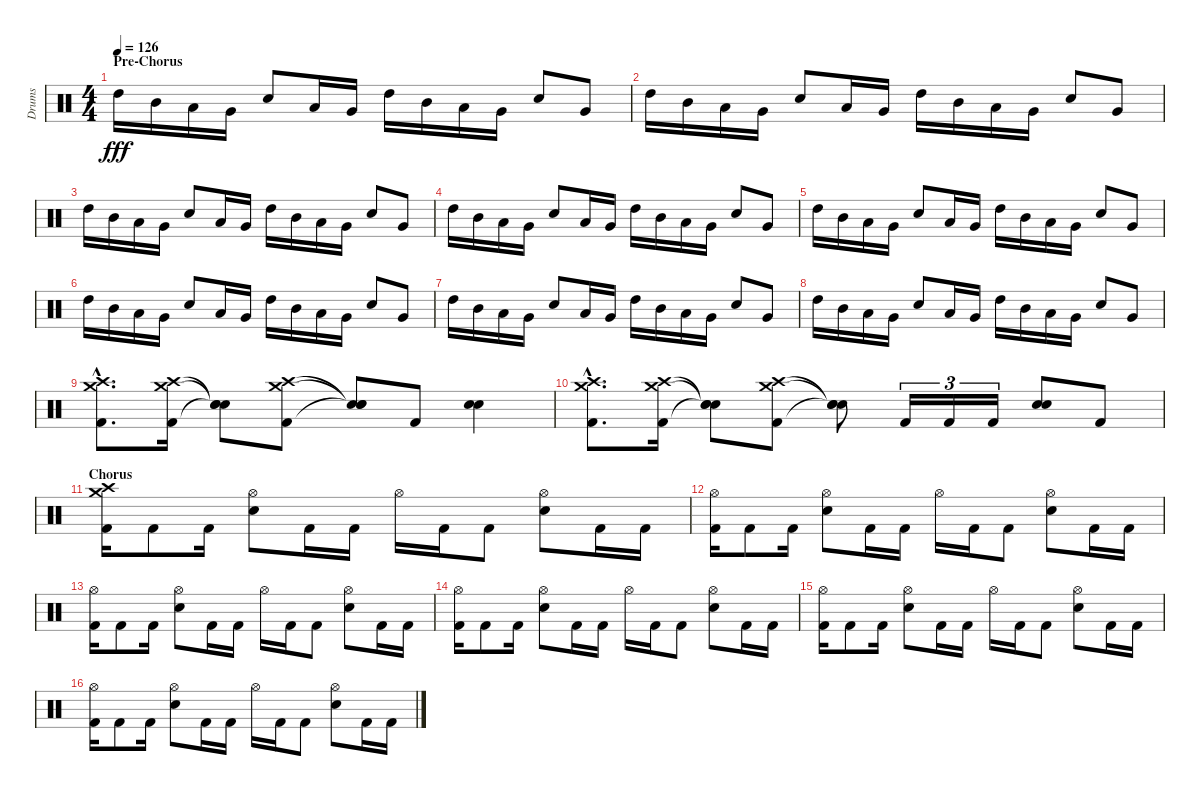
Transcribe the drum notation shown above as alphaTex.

\track ("Drums" "Drums") {instrument percussion}
\staff {score}
\articulation defaults
\ts (4 4)
\section ("" "Pre-Chorus")
\tempo 126
\clef neutral
\ks c "High Tom (hit)".16{dy fff} "Mid Tom (hit)".16 "Low Tom (hit)".16 "Very Low Tom (hit)".16 "Electric Snare (hit)".8 "Low Tom (hit)".16 "Very Low Tom (hit)".16 "High Tom (hit)".16 "Mid Tom (hit)".16 "Low Tom (hit)".16 "Very Low Tom (hit)".16 "Electric Snare (hit)".8 "Very Low Tom (hit)".8
|
"High Tom (hit)".16 "Mid Tom (hit)".16 "Low Tom (hit)".16 "Very Low Tom (hit)".16 "Electric Snare (hit)".8 "Low Tom (hit)".16 "Very Low Tom (hit)".16 "High Tom (hit)".16 "Mid Tom (hit)".16 "Low Tom (hit)".16 "Very Low Tom (hit)".16 "Electric Snare (hit)".8 "Very Low Tom (hit)".8 |
"High Tom (hit)".16 "Mid Tom (hit)".16 "Low Tom (hit)".16 "Very Low Tom (hit)".16 "Electric Snare (hit)".8 "Low Tom (hit)".16 "Very Low Tom (hit)".16 "High Tom (hit)".16 "Mid Tom (hit)".16 "Low Tom (hit)".16 "Very Low Tom (hit)".16 "Electric Snare (hit)".8 "Very Low Tom (hit)".8 |
"High Tom (hit)".16 "Mid Tom (hit)".16 "Low Tom (hit)".16 "Very Low Tom (hit)".16 "Electric Snare (hit)".8 "Low Tom (hit)".16 "Very Low Tom (hit)".16 "High Tom (hit)".16 "Mid Tom (hit)".16 "Low Tom (hit)".16 "Very Low Tom (hit)".16 "Electric Snare (hit)".8 "Very Low Tom (hit)".8 |
"High Tom (hit)".16 "Mid Tom (hit)".16 "Low Tom (hit)".16 "Very Low Tom (hit)".16 "Electric Snare (hit)".8 "Low Tom (hit)".16 "Very Low Tom (hit)".16 "High Tom (hit)".16 "Mid Tom (hit)".16 "Low Tom (hit)".16 "Very Low Tom (hit)".16 "Electric Snare (hit)".8 "Very Low Tom (hit)".8 |
"High Tom (hit)".16 "Mid Tom (hit)".16 "Low Tom (hit)".16 "Very Low Tom (hit)".16 "Electric Snare (hit)".8 "Low Tom (hit)".16 "Very Low Tom (hit)".16 "High Tom (hit)".16 "Mid Tom (hit)".16 "Low Tom (hit)".16 "Very Low Tom (hit)".16 "Electric Snare (hit)".8 "Very Low Tom (hit)".8 |
"High Tom (hit)".16 "Mid Tom (hit)".16 "Low Tom (hit)".16 "Very Low Tom (hit)".16 "Electric Snare (hit)".8 "Low Tom (hit)".16 "Very Low Tom (hit)".16 "High Tom (hit)".16 "Mid Tom (hit)".16 "Low Tom (hit)".16 "Very Low Tom (hit)".16 "Electric Snare (hit)".8 "Very Low Tom (hit)".8 |
"High Tom (hit)".16 "Mid Tom (hit)".16 "Low Tom (hit)".16 "Very Low Tom (hit)".16 "Electric Snare (hit)".8 "Low Tom (hit)".16 "Very Low Tom (hit)".16 "High Tom (hit)".16 "Mid Tom (hit)".16 "Low Tom (hit)".16 "Very Low Tom (hit)".16 "Electric Snare (hit)".8 "Very Low Tom (hit)".8 |
("Crash high (hit)"{hac} "Crash medium (hit)"{hac} "Kick (hit) 2"{hac}).8{d} ("Crash high (hit)" "Crash medium (hit)" "Kick (hit) 2").16 ("Snare (hit)"{t} "Snare (hit)"{t} "Snare (hit)"{t}).8 ("Crash high (hit)" "Crash medium (hit)" "Kick (hit) 2").8 ("Snare (hit)"{t} "Snare (hit)"{t} "Snare (hit)"{t}).8 "Kick (hit) 2".8 ("Electric Snare (hit)" "Electric Snare (hit)").4 |
("Crash high (hit)"{hac} "Crash medium (hit)"{hac} "Kick (hit) 2"{hac}).8{d} ("Crash high (hit)" "Crash medium (hit)" "Kick (hit) 2").16 ("Snare (hit)"{t} "Snare (hit)"{t} "Snare (hit)"{t}).8 ("Crash high (hit)" "Crash medium (hit)" "Kick (hit) 2").8 ("Snare (hit)"{t} "Snare (hit)"{t} "Snare (hit)"{t}).8 "Kick (hit) 2".16{tu (3 2)} "Kick (hit) 2".16{tu (3 2)} "Kick (hit) 2".16{tu (3 2)} ("Electric Snare (hit)" "Electric Snare (hit)").8 "Kick (hit) 2".8 |
\section ("" "Chorus")
("Crash high (hit)" "Crash medium (hit)" "Kick (hit) 2").16 "Kick (hit) 2".8 "Kick (hit) 2".16 ("Hi-Hat (open)" "Electric Snare (hit)").8 "Kick (hit) 2".16 "Kick (hit) 2".16 "Hi-Hat (open)".16 "Kick (hit) 2".16 "Kick (hit) 2".8 ("Hi-Hat (open)" "Electric Snare (hit)").8 "Kick (hit) 2".16 "Kick (hit) 2".16 |
("Hi-Hat (open)" "Kick (hit) 2").16 "Kick (hit) 2".8 "Kick (hit) 2".16 ("Hi-Hat (open)" "Electric Snare (hit)").8 "Kick (hit) 2".16 "Kick (hit) 2".16 "Hi-Hat (open)".16 "Kick (hit) 2".16 "Kick (hit) 2".8 ("Hi-Hat (open)" "Electric Snare (hit)").8 "Kick (hit) 2".16 "Kick (hit) 2".16 |
("Hi-Hat (open)" "Kick (hit) 2").16 "Kick (hit) 2".8 "Kick (hit) 2".16 ("Hi-Hat (open)" "Electric Snare (hit)").8 "Kick (hit) 2".16 "Kick (hit) 2".16 "Hi-Hat (open)".16 "Kick (hit) 2".16 "Kick (hit) 2".8 ("Hi-Hat (open)" "Electric Snare (hit)").8 "Kick (hit) 2".16 "Kick (hit) 2".16 |
("Hi-Hat (open)" "Kick (hit) 2").16 "Kick (hit) 2".8 "Kick (hit) 2".16 ("Hi-Hat (open)" "Electric Snare (hit)").8 "Kick (hit) 2".16 "Kick (hit) 2".16 "Hi-Hat (open)".16 "Kick (hit) 2".16 "Kick (hit) 2".8 ("Hi-Hat (open)" "Electric Snare (hit)").8 "Kick (hit) 2".16 "Kick (hit) 2".16 |
("Hi-Hat (open)" "Kick (hit) 2").16 "Kick (hit) 2".8 "Kick (hit) 2".16 ("Hi-Hat (open)" "Electric Snare (hit)").8 "Kick (hit) 2".16 "Kick (hit) 2".16 "Hi-Hat (open)".16 "Kick (hit) 2".16 "Kick (hit) 2".8 ("Hi-Hat (open)" "Electric Snare (hit)").8 "Kick (hit) 2".16 "Kick (hit) 2".16 |
("Hi-Hat (open)" "Kick (hit) 2").16 "Kick (hit) 2".8 "Kick (hit) 2".16 ("Hi-Hat (open)" "Electric Snare (hit)").8 "Kick (hit) 2".16 "Kick (hit) 2".16 "Hi-Hat (open)".16 "Kick (hit) 2".16 "Kick (hit) 2".8 ("Hi-Hat (open)" "Electric Snare (hit)").8 "Kick (hit) 2".16 "Kick (hit) 2".16
